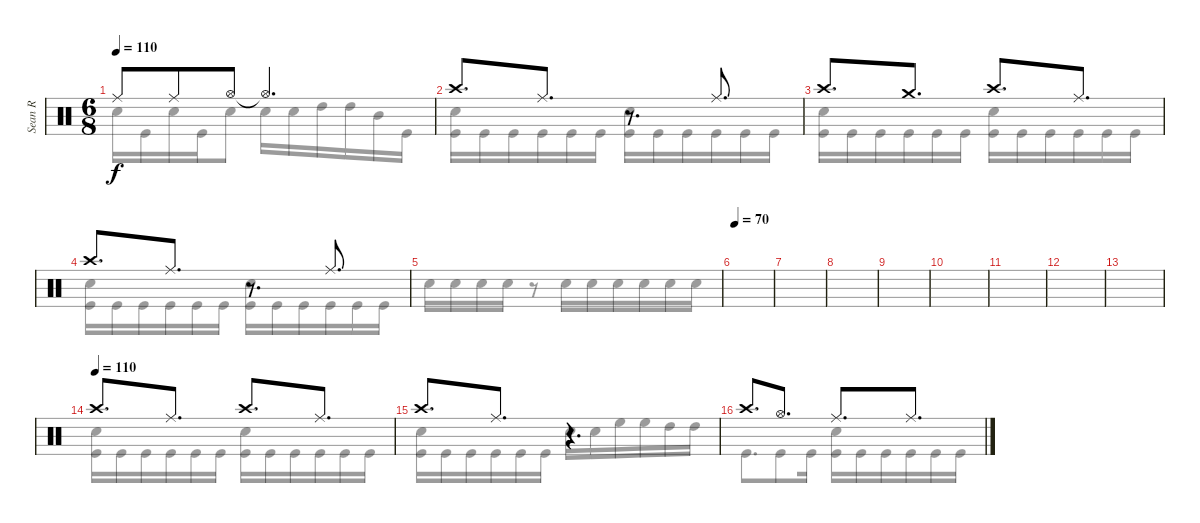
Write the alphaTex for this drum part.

\track ("Sean R" "Sean R") {instrument percussion}
\staff {score}
\articulation defaults
\voice
\ts (6 8)
\tempo 110
\clef neutral
\ks c "Ride (middle)".8{dy f} "Ride (middle)".8 "Hi-Hat (open)".8 "Hi-Hat (open)"{t}.4{d}
|
"Crash high (hit)".8{d} "Ride (middle)".8{d} r.8{d} "Ride (middle)".8{d} |
"Crash high (hit)".8{d} "Crash medium (hit)".8{d} "Crash high (hit)".8{d} "Ride (middle)".8{d} |
"Crash high (hit)".8{d} "Ride (middle)".8{d} r.8{d} "Ride (middle)".8{d} |
|
\tempo 70
|
|
|
|
|
|
|
|
\tempo (110)
"Crash high (hit)".8{d} "Ride (middle)".8{d} "Crash high (hit)".8{d} "Ride (middle)".8{d} |
"Crash high (hit)".8{d} "Ride (middle)".8{d} r.4{d} |
"Crash high (hit)".8{d} "Hi-Hat (open)".8{d} "Ride (middle)".8{d} "Ride (middle)".8{d}
\voice
\clef neutral
\ottava regular
\simile none
\ks c "Snare (hit) 2".16{dy f} "Kick (hit)".16 "Snare (hit) 2".16 "Kick (hit)".16 "Snare (hit) 2".8 "Snare (hit) 2".16 "Snare (hit) 2".16 "High Tom (hit)".16 "High Tom (hit)".16 "Mid Tom (hit)".16 "Kick (hit)".16
|
("Snare (hit) 2" "Kick (hit)").16 "Kick (hit)".16 "Kick (hit)".16 "Kick (hit)".16 "Kick (hit)".16 "Kick (hit)".16 ("Snare (hit) 2" "Kick (hit)").16 "Kick (hit)".16 "Kick (hit)".16 "Kick (hit)".16 "Kick (hit)".16 "Kick (hit)".16 |
("Snare (hit) 2" "Kick (hit)").16 "Kick (hit)".16 "Kick (hit)".16 "Kick (hit)".16 "Kick (hit)".16 "Kick (hit)".16 ("Snare (hit) 2" "Kick (hit)").16 "Kick (hit)".16 "Kick (hit)".16 "Kick (hit)".16 "Kick (hit)".16 "Kick (hit)".16 |
("Snare (hit) 2" "Kick (hit)").16 "Kick (hit)".16 "Kick (hit)".16 "Kick (hit)".16 "Kick (hit)".16 "Kick (hit)".16 ("Snare (hit) 2" "Kick (hit)").16 "Kick (hit)".16 "Kick (hit)".16 "Kick (hit)".16 "Kick (hit)".16 "Kick (hit)".16 |
"Snare (hit) 2".16 "Snare (hit) 2".16 "Snare (hit) 2".16 "Snare (hit) 2".16 r.8 "Snare (hit) 2".16 "Snare (hit) 2".16 "Snare (hit) 2".16 "Snare (hit) 2".16 "Snare (hit) 2".16 "Snare (hit) 2".16 |
|
|
|
|
|
|
|
|
("Snare (hit) 2" "Kick (hit)").16 "Kick (hit)".16 "Kick (hit)".16 "Kick (hit)".16 "Kick (hit)".16 "Kick (hit)".16 ("Snare (hit) 2" "Kick (hit)").16 "Kick (hit)".16 "Kick (hit)".16 "Kick (hit)".16 "Kick (hit)".16 "Kick (hit)".16 |
("Snare (hit) 2" "Kick (hit)").16 "Kick (hit)".16 "Kick (hit)".16 "Kick (hit)".16 "Kick (hit)".16 "Kick (hit)".16 "Snare (hit) 2".16 "Snare (hit) 2".16 "High Floor Tom (hit)".16 "High Floor Tom (hit)".16 "High Tom (hit)".16 "High Tom (hit)".16 |
"Kick (hit)".8{d} "Kick (hit)".8 "Kick (hit)".16 ("Snare (hit) 2" "Kick (hit)").16 "Kick (hit)".16 "Kick (hit)".16 "Kick (hit)".16 "Kick (hit)".16 "Kick (hit)".16
